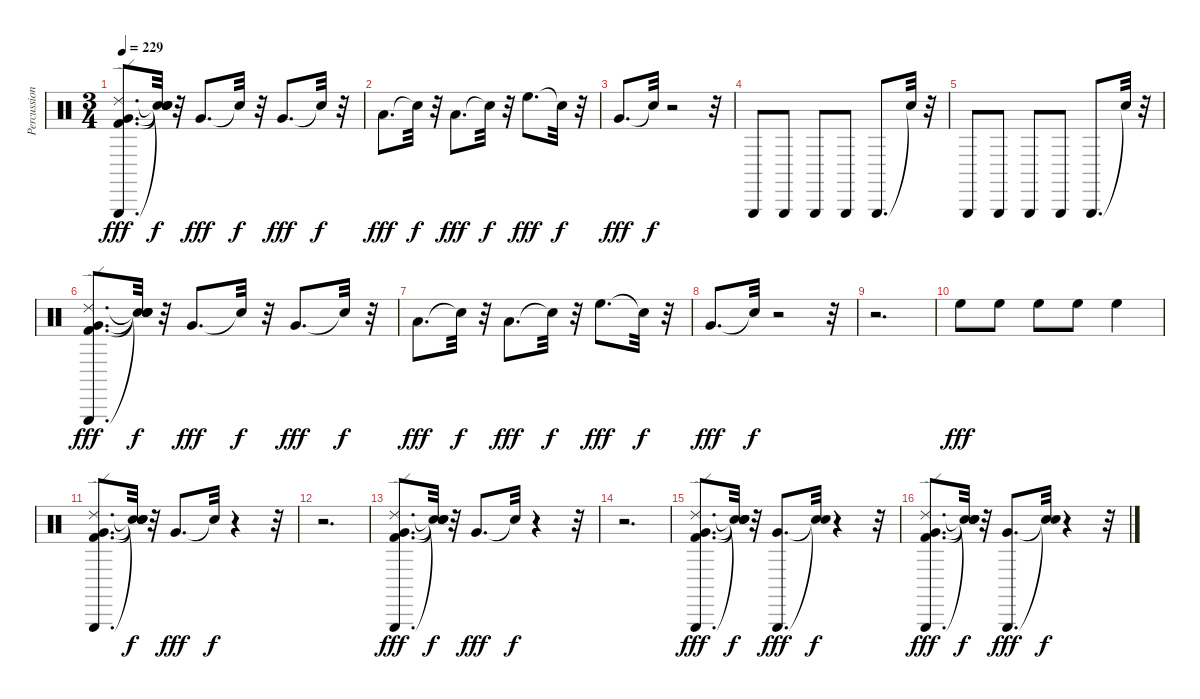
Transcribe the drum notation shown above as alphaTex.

\track ("Percussion." "Percussion") {instrument percussion}
\staff {score}
\articulation defaults
\ts (3 4)
\tempo 229
\clef neutral
\ks c
("Very Low Tom (hit)" "Kick (hit) 2" "Ride (edge) 2" "Triangle (hit)").8{d dy fff} ("Snare (hit)"{t} "Snare (hit)"{t} "Snare (hit)"{t} "Snare (hit)"{t}).32{dy f} r.32 "Very Low Tom (hit)".8{d dy fff} "Snare (hit)"{t}.32{dy f} r.32 "Very Low Tom (hit)".8{d dy fff} "Snare (hit)"{t}.32{dy f} r.32 |
"Low Tom (hit)".8{d dy fff} "Snare (hit)"{t}.32{dy f} r.32 "Low Tom (hit)".8{d dy fff} "Snare (hit)"{t}.32{dy f} r.32 "High Floor Tom (hit)".8{d dy fff} "Snare (hit)"{t}.32{dy f} r.32 |
"Very Low Tom (hit)".8{d dy fff} "Snare (hit)"{t}.32{dy f} r.2 r.32 |
"Triangle (hit)".8 "Triangle (hit)".8 "Triangle (hit)".8 "Triangle (hit)".8 "Triangle (hit)".8{d} "Snare (hit)"{t}.32 r.32 |
"Triangle (hit)".8 "Triangle (hit)".8 "Triangle (hit)".8 "Triangle (hit)".8 "Triangle (hit)".8{d} "Snare (hit)"{t}.32 r.32 |
("Very Low Tom (hit)" "Triangle (hit)" "Ride (edge) 2" "Kick (hit) 2").8{d dy fff} ("Snare (hit)"{t} "Snare (hit)"{t} "Snare (hit)"{t} "Snare (hit)"{t}).32{dy f} r.32 "Very Low Tom (hit)".8{d dy fff} "Snare (hit)"{t}.32{dy f} r.32 "Very Low Tom (hit)".8{d dy fff} "Snare (hit)"{t}.32{dy f} r.32 |
"Low Tom (hit)".8{d dy fff} "Snare (hit)"{t}.32{dy f} r.32 "Low Tom (hit)".8{d dy fff} "Snare (hit)"{t}.32{dy f} r.32 "High Floor Tom (hit)".8{d dy fff} "Snare (hit)"{t}.32{dy f} r.32 |
"Very Low Tom (hit)".8{d dy fff} "Snare (hit)"{t}.32{dy f} r.2 r.32 |
r.2{d} |
"High Floor Tom (hit)".8{dy fff} "High Floor Tom (hit)".8 "High Floor Tom (hit)".8 "High Floor Tom (hit)".8 "High Floor Tom (hit)".4 |
("Very Low Tom (hit)" "Kick (hit) 2" "Ride (edge) 2" "Triangle (hit)").8{d} ("Snare (hit)"{t} "Snare (hit)"{t} "Snare (hit)"{t} "Snare (hit)"{t}).32{dy f} r.32 "Very Low Tom (hit)".8{d dy fff} "Snare (hit)"{t}.32{dy f} r.4 r.32 |
r.2{d} |
("Very Low Tom (hit)" "Kick (hit) 2" "Ride (edge) 2" "Triangle (hit)").8{d dy fff} ("Snare (hit)"{t} "Snare (hit)"{t} "Snare (hit)"{t} "Snare (hit)"{t}).32{dy f} r.32 "Very Low Tom (hit)".8{d dy fff} "Snare (hit)"{t}.32{dy f} r.4 r.32 |
r.2{d} |
("Very Low Tom (hit)" "Kick (hit) 2" "Ride (edge) 2" "Triangle (hit)").8{d dy fff} ("Snare (hit)"{t} "Snare (hit)"{t} "Snare (hit)"{t} "Snare (hit)"{t}).32{dy f} r.32 ("Very Low Tom (hit)" "Triangle (hit)").8{d dy fff} ("Snare (hit)"{t} "Snare (hit)"{t}).32{dy f} r.4 r.32 |
("Very Low Tom (hit)" "Triangle (hit)" "Ride (edge) 2" "Kick (hit) 2").8{d dy fff} ("Snare (hit)"{t} "Snare (hit)"{t} "Snare (hit)"{t} "Snare (hit)"{t}).32{dy f} r.32 ("Very Low Tom (hit)" "Triangle (hit)").8{d dy fff} ("Snare (hit)"{t} "Snare (hit)"{t}).32{dy f} r.4 r.32
